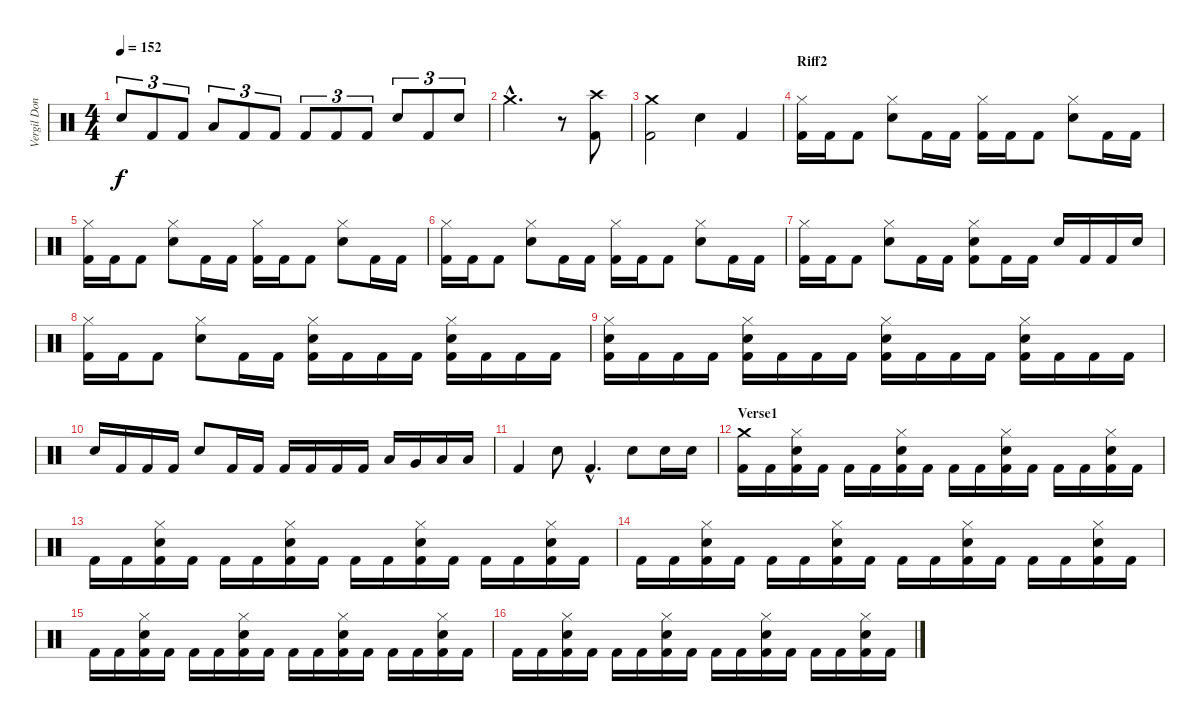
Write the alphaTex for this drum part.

\track ("Vergil Donati" "Vergil Don") {instrument percussion}
\staff {score}
\articulation defaults
\ts (4 4)
\tempo 152
\clef neutral
\ks c "Electric Snare (hit)".8{tu (3 2) dy f} "Kick (hit) 2".8{tu (3 2)} "Kick (hit) 2".8{tu (3 2)} "Low Tom (hit)".8{tu (3 2)} "Kick (hit) 2".8{tu (3 2)} "Kick (hit) 2".8{tu (3 2)} "Kick (hit) 2".8{tu (3 2)} "Kick (hit) 2".8{tu (3 2)} "Kick (hit) 2".8{tu (3 2)} "Electric Snare (hit)".8{tu (3 2)} "Kick (hit) 2".8{tu (3 2)} "Electric Snare (hit)".8{tu (3 2)}
|
"Crash medium (hit)"{hac}.2{d} r.8 ("Crash high (hit)" "Kick (hit) 2").8 |
("Crash medium (hit)" "Kick (hit) 2").2 "Electric Snare (hit)".4 "Kick (hit) 2".4 |
\section ("" "Riff2")
("Hi-Hat (closed)" "Kick (hit) 2").16 "Kick (hit) 2".16 "Kick (hit) 2".8 ("Electric Snare (hit)" "Hi-Hat (closed)").8 "Kick (hit) 2".16 "Kick (hit) 2".16 ("Hi-Hat (closed)" "Kick (hit) 2").16 "Kick (hit) 2".16 "Kick (hit) 2".8 ("Electric Snare (hit)" "Hi-Hat (closed)").8 "Kick (hit) 2".16 "Kick (hit) 2".16 |
("Hi-Hat (closed)" "Kick (hit) 2").16 "Kick (hit) 2".16 "Kick (hit) 2".8 ("Electric Snare (hit)" "Hi-Hat (closed)").8 "Kick (hit) 2".16 "Kick (hit) 2".16 ("Hi-Hat (closed)" "Kick (hit) 2").16 "Kick (hit) 2".16 "Kick (hit) 2".8 ("Electric Snare (hit)" "Hi-Hat (closed)").8 "Kick (hit) 2".16 "Kick (hit) 2".16 |
("Hi-Hat (closed)" "Kick (hit) 2").16 "Kick (hit) 2".16 "Kick (hit) 2".8 ("Electric Snare (hit)" "Hi-Hat (closed)").8 "Kick (hit) 2".16 "Kick (hit) 2".16 ("Hi-Hat (closed)" "Kick (hit) 2").16 "Kick (hit) 2".16 "Kick (hit) 2".8 ("Electric Snare (hit)" "Hi-Hat (closed)").8 "Kick (hit) 2".16 "Kick (hit) 2".16 |
("Hi-Hat (closed)" "Kick (hit) 2").16 "Kick (hit) 2".16 "Kick (hit) 2".8 ("Electric Snare (hit)" "Hi-Hat (closed)").8 "Kick (hit) 2".16 "Kick (hit) 2".16 ("Electric Snare (hit)" "Hi-Hat (closed)" "Kick (hit) 2").8 "Kick (hit) 2".16 "Kick (hit) 2".16 "Electric Snare (hit)".16 "Kick (hit) 2".16 "Kick (hit) 2".16 "Electric Snare (hit)".16 |
("Hi-Hat (closed)" "Kick (hit) 2").16 "Kick (hit) 2".16 "Kick (hit) 2".8 ("Electric Snare (hit)" "Hi-Hat (closed)").8 "Kick (hit) 2".16 "Kick (hit) 2".16 ("Electric Snare (hit)" "Hi-Hat (closed)" "Kick (hit) 2").16 "Kick (hit) 2".16 "Kick (hit) 2".16 "Kick (hit) 2".16 ("Electric Snare (hit)" "Hi-Hat (closed)" "Kick (hit) 2").16 "Kick (hit) 2".16 "Kick (hit) 2".16 "Kick (hit) 2".16 |
("Electric Snare (hit)" "Hi-Hat (closed)" "Kick (hit) 2").16 "Kick (hit) 2".16 "Kick (hit) 2".16 "Kick (hit) 2".16 ("Electric Snare (hit)" "Hi-Hat (closed)" "Kick (hit) 2").16 "Kick (hit) 2".16 "Kick (hit) 2".16 "Kick (hit) 2".16 ("Electric Snare (hit)" "Hi-Hat (closed)" "Kick (hit) 2").16 "Kick (hit) 2".16 "Kick (hit) 2".16 "Kick (hit) 2".16 ("Electric Snare (hit)" "Hi-Hat (closed)" "Kick (hit) 2").16 "Kick (hit) 2".16 "Kick (hit) 2".16 "Kick (hit) 2".16 |
"Snare (hit) 2".16 "Kick (hit) 2".16 "Kick (hit) 2".16 "Kick (hit) 2".16 "Electric Snare (hit)".8 "Kick (hit) 2".16 "Kick (hit) 2".16 "Kick (hit) 2".16 "Kick (hit) 2".16 "Kick (hit) 2".16 "Kick (hit) 2".16 "Low Tom (hit)".16 "Very Low Tom (hit)".16 "Low Floor Tom (hit)".16 "Low Floor Tom (hit)".16 |
"Kick (hit) 2".4 "Electric Snare (hit)".8 "Kick (hit) 2"{hac}.4{d} "Electric Snare (hit)".8 "Electric Snare (hit)".16 "Electric Snare (hit)".16 |
\section ("" "Verse1")
("Crash medium (hit)" "Kick (hit) 2").16 "Kick (hit) 2".16 ("Electric Snare (hit)" "Hi-Hat (closed)" "Kick (hit) 2").16 "Kick (hit) 2".16 "Kick (hit) 2".16 "Kick (hit) 2".16 ("Electric Snare (hit)" "Hi-Hat (closed)" "Kick (hit) 2").16 "Kick (hit) 2".16 "Kick (hit) 2".16 "Kick (hit) 2".16 ("Electric Snare (hit)" "Hi-Hat (closed)" "Kick (hit) 2").16 "Kick (hit) 2".16 "Kick (hit) 2".16 "Kick (hit) 2".16 ("Electric Snare (hit)" "Hi-Hat (closed)" "Kick (hit) 2").16 "Kick (hit) 2".16 |
"Kick (hit) 2".16 "Kick (hit) 2".16 ("Electric Snare (hit)" "Hi-Hat (closed)" "Kick (hit) 2").16 "Kick (hit) 2".16 "Kick (hit) 2".16 "Kick (hit) 2".16 ("Electric Snare (hit)" "Hi-Hat (closed)" "Kick (hit) 2").16 "Kick (hit) 2".16 "Kick (hit) 2".16 "Kick (hit) 2".16 ("Electric Snare (hit)" "Hi-Hat (closed)" "Kick (hit) 2").16 "Kick (hit) 2".16 "Kick (hit) 2".16 "Kick (hit) 2".16 ("Electric Snare (hit)" "Hi-Hat (closed)" "Kick (hit) 2").16 "Kick (hit) 2".16 |
"Kick (hit) 2".16 "Kick (hit) 2".16 ("Electric Snare (hit)" "Hi-Hat (closed)" "Kick (hit) 2").16 "Kick (hit) 2".16 "Kick (hit) 2".16 "Kick (hit) 2".16 ("Electric Snare (hit)" "Hi-Hat (closed)" "Kick (hit) 2").16 "Kick (hit) 2".16 "Kick (hit) 2".16 "Kick (hit) 2".16 ("Electric Snare (hit)" "Hi-Hat (closed)" "Kick (hit) 2").16 "Kick (hit) 2".16 "Kick (hit) 2".16 "Kick (hit) 2".16 ("Electric Snare (hit)" "Hi-Hat (closed)" "Kick (hit) 2").16 "Kick (hit) 2".16 |
"Kick (hit) 2".16 "Kick (hit) 2".16 ("Electric Snare (hit)" "Hi-Hat (closed)" "Kick (hit) 2").16 "Kick (hit) 2".16 "Kick (hit) 2".16 "Kick (hit) 2".16 ("Electric Snare (hit)" "Hi-Hat (closed)" "Kick (hit) 2").16 "Kick (hit) 2".16 "Kick (hit) 2".16 "Kick (hit) 2".16 ("Electric Snare (hit)" "Hi-Hat (closed)" "Kick (hit) 2").16 "Kick (hit) 2".16 "Kick (hit) 2".16 "Kick (hit) 2".16 ("Electric Snare (hit)" "Hi-Hat (closed)" "Kick (hit) 2").16 "Kick (hit) 2".16 |
"Kick (hit) 2".16 "Kick (hit) 2".16 ("Electric Snare (hit)" "Hi-Hat (closed)" "Kick (hit) 2").16 "Kick (hit) 2".16 "Kick (hit) 2".16 "Kick (hit) 2".16 ("Electric Snare (hit)" "Hi-Hat (closed)" "Kick (hit) 2").16 "Kick (hit) 2".16 "Kick (hit) 2".16 "Kick (hit) 2".16 ("Electric Snare (hit)" "Hi-Hat (closed)" "Kick (hit) 2").16 "Kick (hit) 2".16 "Kick (hit) 2".16 "Kick (hit) 2".16 ("Electric Snare (hit)" "Hi-Hat (closed)" "Kick (hit) 2").16 "Kick (hit) 2".16
